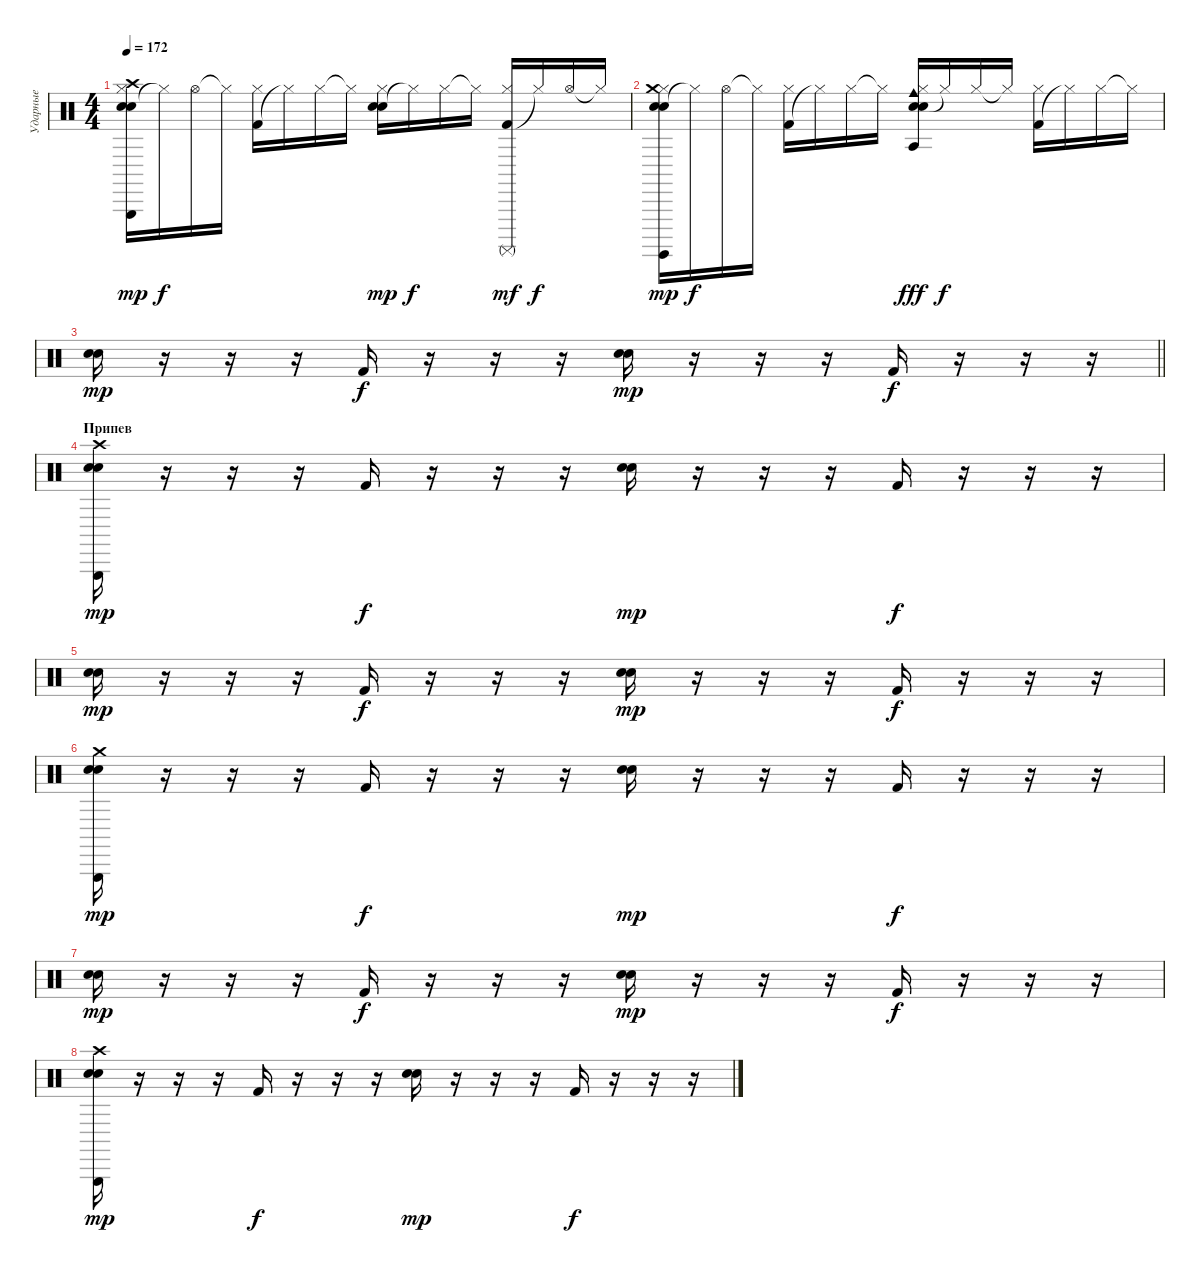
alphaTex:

\track ("Ударные" "Ударные") {instrument percussion}
\staff {score}
\articulation defaults
\ts (4 4)
\tempo 172
\clef neutral
\ks c
("Snare (hit) 2" "Electric Snare (hit)" "Hi-Hat (closed)" "Triangle (hit)" "Crash high (hit)").16{dy mp} "Hi-Hat (closed)"{t}.16{dy f} "Hi-Hat (open)".16 "Hi-Hat (closed)"{t}.16 ("Kick (hit) 2" "Hi-Hat (closed)").16 "Hi-Hat (closed)"{t}.16 "Hi-Hat (closed)".16 "Hi-Hat (closed)"{t}.16 ("Snare (hit) 2" "Electric Snare (hit)" "Hi-Hat (closed)").16{dy mp} "Hi-Hat (closed)"{t}.16{dy f} "Hi-Hat (closed)".16 "Hi-Hat (closed)"{t}.16 ("Kick (hit) 2" "Hi-Hat (closed)" "Surdo (mute)").16{dy mf} "Hi-Hat (closed)"{t}.16{dy f} "Hi-Hat (open)".16 "Hi-Hat (closed)"{t}.16 |
("Snare (hit) 2" "Electric Snare (hit)" "Hi-Hat (closed)" "Surdo (hit)" "Crash medium (hit)").16{dy mp} "Hi-Hat (closed)"{t}.16{dy f} "Hi-Hat (open)".16 "Hi-Hat (closed)"{t}.16 ("Kick (hit) 2" "Hi-Hat (closed)").16 "Hi-Hat (closed)"{t}.16 "Hi-Hat (closed)".16 "Hi-Hat (closed)"{t}.16 ("Snare (hit) 2" "Electric Snare (hit)" "Hi-Hat (closed)" "Cowbell medium (hit)" "Agogo tow (hit)").16{dy fff} "Hi-Hat (closed)"{t}.16{dy f} "Hi-Hat (closed)".16 "Hi-Hat (closed)"{t}.16 ("Kick (hit) 2" "Hi-Hat (closed)").16 "Hi-Hat (closed)"{t}.16 "Hi-Hat (closed)".16 "Hi-Hat (closed)"{t}.16 |
\barLineRight lightlight
("Snare (hit) 2" "Electric Snare (hit)").16{dy mp} r.16 r.16 r.16 "Kick (hit) 2".16{dy f} r.16 r.16 r.16 ("Snare (hit) 2" "Electric Snare (hit)").16{dy mp} r.16 r.16 r.16 "Kick (hit) 2".16{dy f} r.16 r.16 r.16 |
\section ("" "Припев")
("Snare (hit) 2" "Electric Snare (hit)" "Triangle (hit)" "Crash high (hit)").16{dy mp} r.16 r.16 r.16 "Kick (hit) 2".16{dy f} r.16 r.16 r.16 ("Snare (hit) 2" "Electric Snare (hit)").16{dy mp} r.16 r.16 r.16 "Kick (hit) 2".16{dy f} r.16 r.16 r.16 |
("Snare (hit) 2" "Electric Snare (hit)").16{dy mp} r.16 r.16 r.16 "Kick (hit) 2".16{dy f} r.16 r.16 r.16 ("Snare (hit) 2" "Electric Snare (hit)").16{dy mp} r.16 r.16 r.16 "Kick (hit) 2".16{dy f} r.16 r.16 r.16 |
("Snare (hit) 2" "Electric Snare (hit)" "Triangle (hit)" "Crash medium (hit)").16{dy mp} r.16 r.16 r.16 "Kick (hit) 2".16{dy f} r.16 r.16 r.16 ("Snare (hit) 2" "Electric Snare (hit)").16{dy mp} r.16 r.16 r.16 "Kick (hit) 2".16{dy f} r.16 r.16 r.16 |
("Snare (hit) 2" "Electric Snare (hit)").16{dy mp} r.16 r.16 r.16 "Kick (hit) 2".16{dy f} r.16 r.16 r.16 ("Snare (hit) 2" "Electric Snare (hit)").16{dy mp} r.16 r.16 r.16 "Kick (hit) 2".16{dy f} r.16 r.16 r.16 |
("Snare (hit) 2" "Electric Snare (hit)" "Triangle (hit)" "Crash high (hit)").16{dy mp} r.16 r.16 r.16 "Kick (hit) 2".16{dy f} r.16 r.16 r.16 ("Snare (hit) 2" "Electric Snare (hit)").16{dy mp} r.16 r.16 r.16 "Kick (hit) 2".16{dy f} r.16 r.16 r.16
